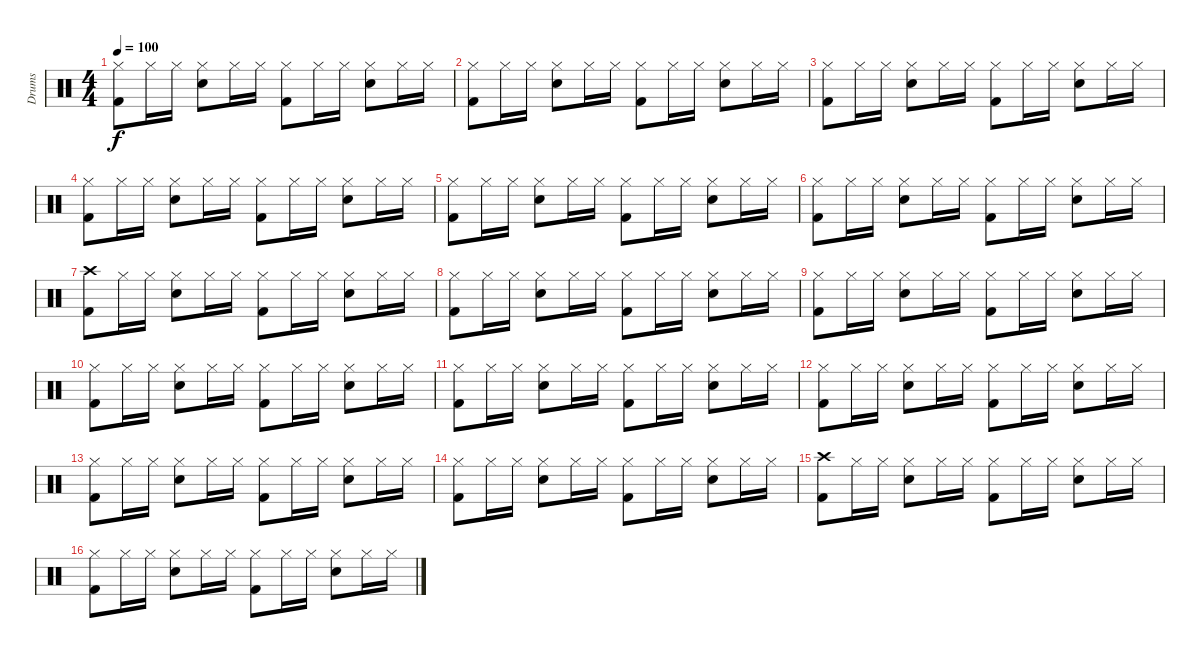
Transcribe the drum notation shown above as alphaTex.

\track ("Drums" "Drums") {instrument percussion}
\staff {score}
\articulation defaults
\ts (4 4)
\tempo 100
\clef neutral
\ks c
("Hi-Hat (closed)" "Kick (hit) 2").8{dy f} "Hi-Hat (closed)".16 "Hi-Hat (closed)".16 ("Hi-Hat (closed)" "Snare (hit) 2").8 "Hi-Hat (closed)".16 "Hi-Hat (closed)".16 ("Hi-Hat (closed)" "Kick (hit) 2").8 "Hi-Hat (closed)".16 "Hi-Hat (closed)".16 ("Hi-Hat (closed)" "Snare (hit) 2").8 "Hi-Hat (closed)".16 "Hi-Hat (closed)".16 |
("Hi-Hat (closed)" "Kick (hit) 2").8 "Hi-Hat (closed)".16 "Hi-Hat (closed)".16 ("Hi-Hat (closed)" "Snare (hit) 2").8 "Hi-Hat (closed)".16 "Hi-Hat (closed)".16 ("Hi-Hat (closed)" "Kick (hit) 2").8 "Hi-Hat (closed)".16 "Hi-Hat (closed)".16 ("Hi-Hat (closed)" "Snare (hit) 2").8 "Hi-Hat (closed)".16 "Hi-Hat (closed)".16 |
("Hi-Hat (closed)" "Kick (hit) 2").8 "Hi-Hat (closed)".16 "Hi-Hat (closed)".16 ("Hi-Hat (closed)" "Snare (hit) 2").8 "Hi-Hat (closed)".16 "Hi-Hat (closed)".16 ("Hi-Hat (closed)" "Kick (hit) 2").8 "Hi-Hat (closed)".16 "Hi-Hat (closed)".16 ("Hi-Hat (closed)" "Snare (hit) 2").8 "Hi-Hat (closed)".16 "Hi-Hat (closed)".16 |
("Hi-Hat (closed)" "Kick (hit) 2").8 "Hi-Hat (closed)".16 "Hi-Hat (closed)".16 ("Hi-Hat (closed)" "Snare (hit) 2").8 "Hi-Hat (closed)".16 "Hi-Hat (closed)".16 ("Hi-Hat (closed)" "Kick (hit) 2").8 "Hi-Hat (closed)".16 "Hi-Hat (closed)".16 ("Hi-Hat (closed)" "Snare (hit) 2").8 "Hi-Hat (closed)".16 "Hi-Hat (closed)".16 |
("Hi-Hat (closed)" "Kick (hit) 2").8 "Hi-Hat (closed)".16 "Hi-Hat (closed)".16 ("Hi-Hat (closed)" "Snare (hit) 2").8 "Hi-Hat (closed)".16 "Hi-Hat (closed)".16 ("Hi-Hat (closed)" "Kick (hit) 2").8 "Hi-Hat (closed)".16 "Hi-Hat (closed)".16 ("Hi-Hat (closed)" "Snare (hit) 2").8 "Hi-Hat (closed)".16 "Hi-Hat (closed)".16 |
("Hi-Hat (closed)" "Kick (hit) 2").8 "Hi-Hat (closed)".16 "Hi-Hat (closed)".16 ("Hi-Hat (closed)" "Snare (hit) 2").8 "Hi-Hat (closed)".16 "Hi-Hat (closed)".16 ("Hi-Hat (closed)" "Kick (hit) 2").8 "Hi-Hat (closed)".16 "Hi-Hat (closed)".16 ("Hi-Hat (closed)" "Snare (hit) 2").8 "Hi-Hat (closed)".16 "Hi-Hat (closed)".16 |
("Crash high (hit)" "Kick (hit) 2").8 "Hi-Hat (closed)".16 "Hi-Hat (closed)".16 ("Hi-Hat (closed)" "Snare (hit) 2").8 "Hi-Hat (closed)".16 "Hi-Hat (closed)".16 ("Hi-Hat (closed)" "Kick (hit) 2").8 "Hi-Hat (closed)".16 "Hi-Hat (closed)".16 ("Hi-Hat (closed)" "Snare (hit) 2").8 "Hi-Hat (closed)".16 "Hi-Hat (closed)".16 |
("Hi-Hat (closed)" "Kick (hit) 2").8 "Hi-Hat (closed)".16 "Hi-Hat (closed)".16 ("Hi-Hat (closed)" "Snare (hit) 2").8 "Hi-Hat (closed)".16 "Hi-Hat (closed)".16 ("Hi-Hat (closed)" "Kick (hit) 2").8 "Hi-Hat (closed)".16 "Hi-Hat (closed)".16 ("Hi-Hat (closed)" "Snare (hit) 2").8 "Hi-Hat (closed)".16 "Hi-Hat (closed)".16 |
("Hi-Hat (closed)" "Kick (hit) 2").8 "Hi-Hat (closed)".16 "Hi-Hat (closed)".16 ("Hi-Hat (closed)" "Snare (hit) 2").8 "Hi-Hat (closed)".16 "Hi-Hat (closed)".16 ("Hi-Hat (closed)" "Kick (hit) 2").8 "Hi-Hat (closed)".16 "Hi-Hat (closed)".16 ("Hi-Hat (closed)" "Snare (hit) 2").8 "Hi-Hat (closed)".16 "Hi-Hat (closed)".16 |
("Hi-Hat (closed)" "Kick (hit) 2").8 "Hi-Hat (closed)".16 "Hi-Hat (closed)".16 ("Hi-Hat (closed)" "Snare (hit) 2").8 "Hi-Hat (closed)".16 "Hi-Hat (closed)".16 ("Hi-Hat (closed)" "Kick (hit) 2").8 "Hi-Hat (closed)".16 "Hi-Hat (closed)".16 ("Hi-Hat (closed)" "Snare (hit) 2").8 "Hi-Hat (closed)".16 "Hi-Hat (closed)".16 |
("Hi-Hat (closed)" "Kick (hit) 2").8 "Hi-Hat (closed)".16 "Hi-Hat (closed)".16 ("Hi-Hat (closed)" "Snare (hit) 2").8 "Hi-Hat (closed)".16 "Hi-Hat (closed)".16 ("Hi-Hat (closed)" "Kick (hit) 2").8 "Hi-Hat (closed)".16 "Hi-Hat (closed)".16 ("Hi-Hat (closed)" "Snare (hit) 2").8 "Hi-Hat (closed)".16 "Hi-Hat (closed)".16 |
("Hi-Hat (closed)" "Kick (hit) 2").8 "Hi-Hat (closed)".16 "Hi-Hat (closed)".16 ("Hi-Hat (closed)" "Snare (hit) 2").8 "Hi-Hat (closed)".16 "Hi-Hat (closed)".16 ("Hi-Hat (closed)" "Kick (hit) 2").8 "Hi-Hat (closed)".16 "Hi-Hat (closed)".16 ("Hi-Hat (closed)" "Snare (hit) 2").8 "Hi-Hat (closed)".16 "Hi-Hat (closed)".16 |
("Hi-Hat (closed)" "Kick (hit) 2").8 "Hi-Hat (closed)".16 "Hi-Hat (closed)".16 ("Hi-Hat (closed)" "Snare (hit) 2").8 "Hi-Hat (closed)".16 "Hi-Hat (closed)".16 ("Hi-Hat (closed)" "Kick (hit) 2").8 "Hi-Hat (closed)".16 "Hi-Hat (closed)".16 ("Hi-Hat (closed)" "Snare (hit) 2").8 "Hi-Hat (closed)".16 "Hi-Hat (closed)".16 |
("Hi-Hat (closed)" "Kick (hit) 2").8 "Hi-Hat (closed)".16 "Hi-Hat (closed)".16 ("Hi-Hat (closed)" "Snare (hit) 2").8 "Hi-Hat (closed)".16 "Hi-Hat (closed)".16 ("Hi-Hat (closed)" "Kick (hit) 2").8 "Hi-Hat (closed)".16 "Hi-Hat (closed)".16 ("Hi-Hat (closed)" "Snare (hit) 2").8 "Hi-Hat (closed)".16 "Hi-Hat (closed)".16 |
("Crash high (hit)" "Kick (hit) 2").8 "Hi-Hat (closed)".16 "Hi-Hat (closed)".16 ("Hi-Hat (closed)" "Snare (hit) 2").8 "Hi-Hat (closed)".16 "Hi-Hat (closed)".16 ("Hi-Hat (closed)" "Kick (hit) 2").8 "Hi-Hat (closed)".16 "Hi-Hat (closed)".16 ("Hi-Hat (closed)" "Snare (hit) 2").8 "Hi-Hat (closed)".16 "Hi-Hat (closed)".16 |
("Hi-Hat (closed)" "Kick (hit) 2").8 "Hi-Hat (closed)".16 "Hi-Hat (closed)".16 ("Hi-Hat (closed)" "Snare (hit) 2").8 "Hi-Hat (closed)".16 "Hi-Hat (closed)".16 ("Hi-Hat (closed)" "Kick (hit) 2").8 "Hi-Hat (closed)".16 "Hi-Hat (closed)".16 ("Hi-Hat (closed)" "Snare (hit) 2").8 "Hi-Hat (closed)".16 "Hi-Hat (closed)".16
